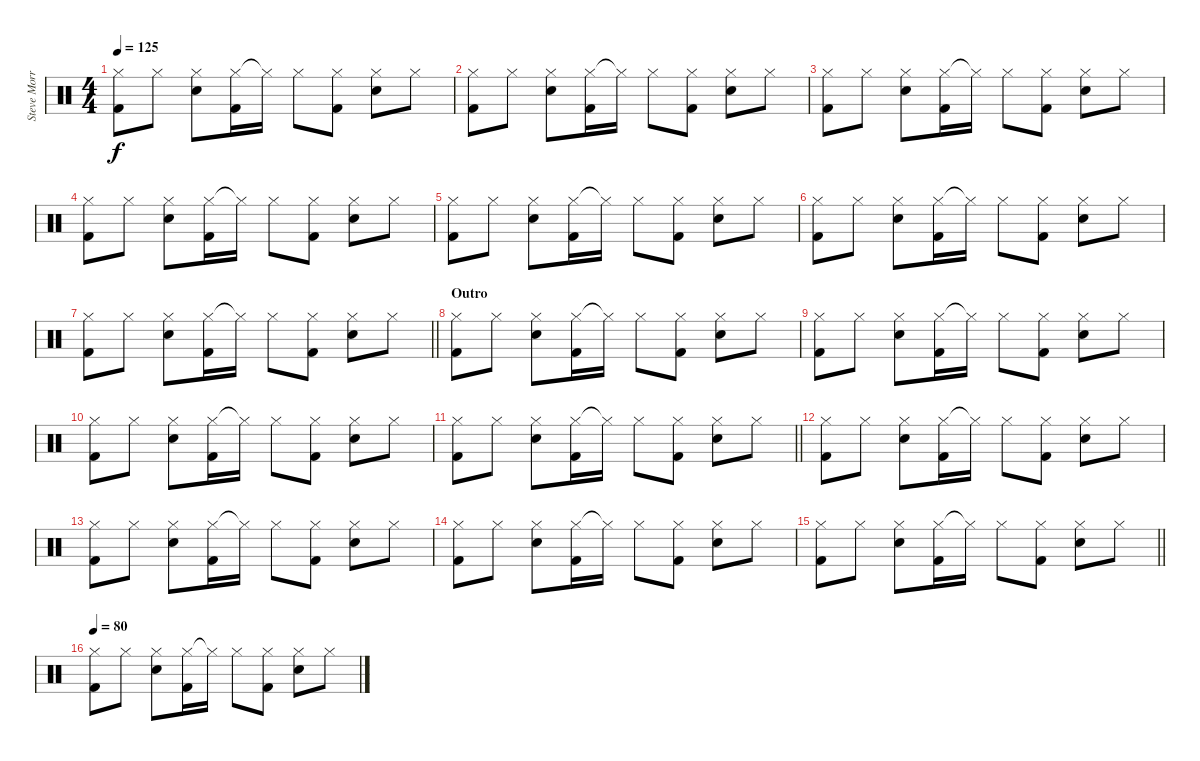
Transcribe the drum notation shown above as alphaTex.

\track ("Steve Morris" "Steve Morr") {instrument percussion}
\staff {score}
\articulation defaults
\ts (4 4)
\tempo 125
\clef neutral
\ks c
("Hi-Hat (closed)" "Kick (hit) 2").8{dy f} "Hi-Hat (closed)".8 ("Hi-Hat (closed)" "Electric Snare (hit)").8 ("Hi-Hat (closed)" "Kick (hit) 2").16 "Hi-Hat (closed)"{t}.16 "Hi-Hat (closed)".8 ("Hi-Hat (closed)" "Kick (hit) 2").8 ("Hi-Hat (closed)" "Electric Snare (hit)").8 "Hi-Hat (closed)".8 |
("Hi-Hat (closed)" "Kick (hit) 2").8 "Hi-Hat (closed)".8 ("Hi-Hat (closed)" "Electric Snare (hit)").8 ("Hi-Hat (closed)" "Kick (hit) 2").16 "Hi-Hat (closed)"{t}.16 "Hi-Hat (closed)".8 ("Hi-Hat (closed)" "Kick (hit) 2").8 ("Hi-Hat (closed)" "Electric Snare (hit)").8 "Hi-Hat (closed)".8 |
("Hi-Hat (closed)" "Kick (hit) 2").8 "Hi-Hat (closed)".8 ("Hi-Hat (closed)" "Electric Snare (hit)").8 ("Hi-Hat (closed)" "Kick (hit) 2").16 "Hi-Hat (closed)"{t}.16 "Hi-Hat (closed)".8 ("Hi-Hat (closed)" "Kick (hit) 2").8 ("Hi-Hat (closed)" "Electric Snare (hit)").8 "Hi-Hat (closed)".8 |
("Hi-Hat (closed)" "Kick (hit) 2").8 "Hi-Hat (closed)".8 ("Hi-Hat (closed)" "Electric Snare (hit)").8 ("Hi-Hat (closed)" "Kick (hit) 2").16 "Hi-Hat (closed)"{t}.16 "Hi-Hat (closed)".8 ("Hi-Hat (closed)" "Kick (hit) 2").8 ("Hi-Hat (closed)" "Electric Snare (hit)").8 "Hi-Hat (closed)".8 |
("Hi-Hat (closed)" "Kick (hit) 2").8 "Hi-Hat (closed)".8 ("Hi-Hat (closed)" "Electric Snare (hit)").8 ("Hi-Hat (closed)" "Kick (hit) 2").16 "Hi-Hat (closed)"{t}.16 "Hi-Hat (closed)".8 ("Hi-Hat (closed)" "Kick (hit) 2").8 ("Hi-Hat (closed)" "Electric Snare (hit)").8 "Hi-Hat (closed)".8 |
("Hi-Hat (closed)" "Kick (hit) 2").8 "Hi-Hat (closed)".8 ("Hi-Hat (closed)" "Electric Snare (hit)").8 ("Hi-Hat (closed)" "Kick (hit) 2").16 "Hi-Hat (closed)"{t}.16 "Hi-Hat (closed)".8 ("Hi-Hat (closed)" "Kick (hit) 2").8 ("Hi-Hat (closed)" "Electric Snare (hit)").8 "Hi-Hat (closed)".8 |
\barLineRight lightlight
("Hi-Hat (closed)" "Kick (hit) 2").8 "Hi-Hat (closed)".8 ("Hi-Hat (closed)" "Electric Snare (hit)").8 ("Hi-Hat (closed)" "Kick (hit) 2").16 "Hi-Hat (closed)"{t}.16 "Hi-Hat (closed)".8 ("Hi-Hat (closed)" "Kick (hit) 2").8 ("Hi-Hat (closed)" "Electric Snare (hit)").8 "Hi-Hat (closed)".8 |
\section ("" "Outro")
("Hi-Hat (closed)" "Kick (hit) 2").8 "Hi-Hat (closed)".8 ("Hi-Hat (closed)" "Electric Snare (hit)").8 ("Hi-Hat (closed)" "Kick (hit) 2").16 "Hi-Hat (closed)"{t}.16 "Hi-Hat (closed)".8 ("Hi-Hat (closed)" "Kick (hit) 2").8 ("Hi-Hat (closed)" "Electric Snare (hit)").8 "Hi-Hat (closed)".8 |
("Hi-Hat (closed)" "Kick (hit) 2").8 "Hi-Hat (closed)".8 ("Hi-Hat (closed)" "Electric Snare (hit)").8 ("Hi-Hat (closed)" "Kick (hit) 2").16 "Hi-Hat (closed)"{t}.16 "Hi-Hat (closed)".8 ("Hi-Hat (closed)" "Kick (hit) 2").8 ("Hi-Hat (closed)" "Electric Snare (hit)").8 "Hi-Hat (closed)".8 |
("Hi-Hat (closed)" "Kick (hit) 2").8 "Hi-Hat (closed)".8 ("Hi-Hat (closed)" "Electric Snare (hit)").8 ("Hi-Hat (closed)" "Kick (hit) 2").16 "Hi-Hat (closed)"{t}.16 "Hi-Hat (closed)".8 ("Hi-Hat (closed)" "Kick (hit) 2").8 ("Hi-Hat (closed)" "Electric Snare (hit)").8 "Hi-Hat (closed)".8 |
\barLineRight lightlight
("Hi-Hat (closed)" "Kick (hit) 2").8 "Hi-Hat (closed)".8 ("Hi-Hat (closed)" "Electric Snare (hit)").8 ("Hi-Hat (closed)" "Kick (hit) 2").16 "Hi-Hat (closed)"{t}.16 "Hi-Hat (closed)".8 ("Hi-Hat (closed)" "Kick (hit) 2").8 ("Hi-Hat (closed)" "Electric Snare (hit)").8 "Hi-Hat (closed)".8 |
("Hi-Hat (closed)" "Kick (hit) 2").8 "Hi-Hat (closed)".8 ("Hi-Hat (closed)" "Electric Snare (hit)").8 ("Hi-Hat (closed)" "Kick (hit) 2").16 "Hi-Hat (closed)"{t}.16 "Hi-Hat (closed)".8 ("Hi-Hat (closed)" "Kick (hit) 2").8 ("Hi-Hat (closed)" "Electric Snare (hit)").8 "Hi-Hat (closed)".8 |
("Hi-Hat (closed)" "Kick (hit) 2").8 "Hi-Hat (closed)".8 ("Hi-Hat (closed)" "Electric Snare (hit)").8 ("Hi-Hat (closed)" "Kick (hit) 2").16 "Hi-Hat (closed)"{t}.16 "Hi-Hat (closed)".8 ("Hi-Hat (closed)" "Kick (hit) 2").8 ("Hi-Hat (closed)" "Electric Snare (hit)").8 "Hi-Hat (closed)".8 |
("Hi-Hat (closed)" "Kick (hit) 2").8 "Hi-Hat (closed)".8 ("Hi-Hat (closed)" "Electric Snare (hit)").8 ("Hi-Hat (closed)" "Kick (hit) 2").16 "Hi-Hat (closed)"{t}.16 "Hi-Hat (closed)".8 ("Hi-Hat (closed)" "Kick (hit) 2").8 ("Hi-Hat (closed)" "Electric Snare (hit)").8 "Hi-Hat (closed)".8 |
\barLineRight lightlight
("Hi-Hat (closed)" "Kick (hit) 2").8 "Hi-Hat (closed)".8 ("Hi-Hat (closed)" "Electric Snare (hit)").8 ("Hi-Hat (closed)" "Kick (hit) 2").16 "Hi-Hat (closed)"{t}.16 "Hi-Hat (closed)".8 ("Hi-Hat (closed)" "Kick (hit) 2").8 ("Hi-Hat (closed)" "Electric Snare (hit)").8 "Hi-Hat (closed)".8 |
\tempo 80
("Hi-Hat (closed)" "Kick (hit) 2").8 "Hi-Hat (closed)".8 ("Hi-Hat (closed)" "Electric Snare (hit)").8 ("Hi-Hat (closed)" "Kick (hit) 2").16 "Hi-Hat (closed)"{t}.16 "Hi-Hat (closed)".8 ("Hi-Hat (closed)" "Kick (hit) 2").8 ("Hi-Hat (closed)" "Electric Snare (hit)").8 "Hi-Hat (closed)".8
